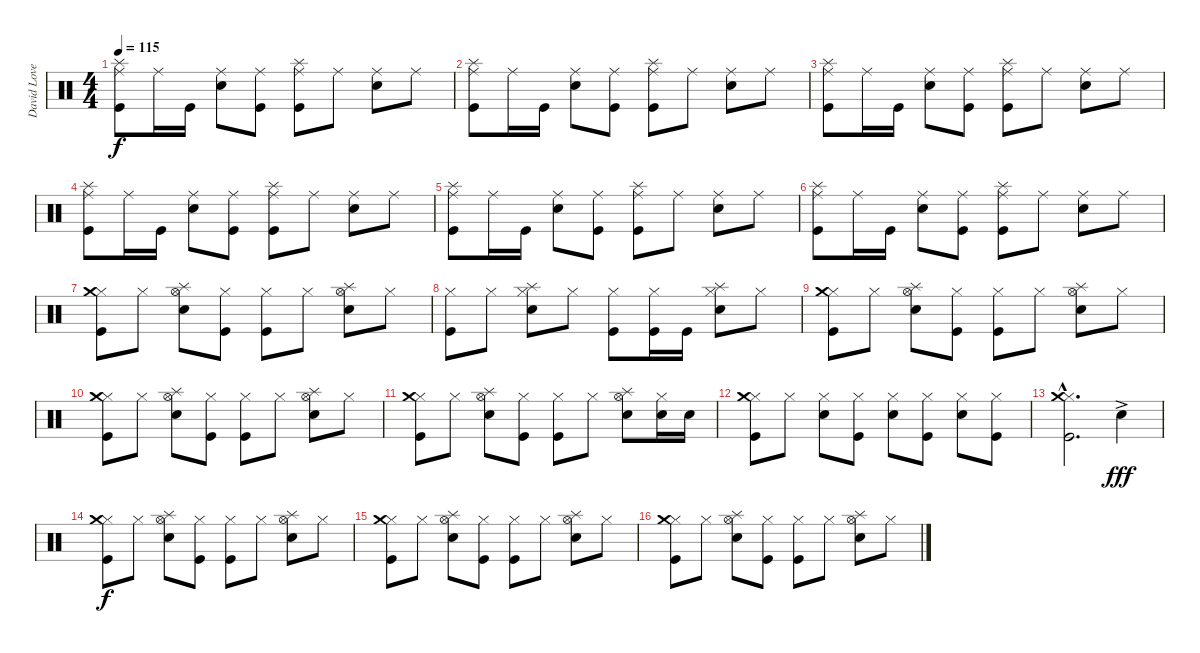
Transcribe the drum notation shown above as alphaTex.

\track ("David Lovering" "David Love") {instrument percussion}
\staff {score}
\articulation defaults
\ts (4 4)
\tempo 115
\clef neutral
\ks c
("Ride (middle)" "Splash (hit)" "Kick (hit)").8{dy f} "Ride (middle)".16 "Kick (hit)".16 ("Ride (middle)" "Snare (hit) 2").8 ("Ride (middle)" "Kick (hit)").8 ("Ride (middle)" "Splash (hit)" "Kick (hit)").8 "Ride (middle)".8 ("Ride (middle)" "Snare (hit) 2").8 "Ride (middle)".8 |
("Ride (middle)" "Splash (hit)" "Kick (hit)").8 "Ride (middle)".16 "Kick (hit)".16 ("Ride (middle)" "Snare (hit) 2").8 ("Ride (middle)" "Kick (hit)").8 ("Ride (middle)" "Splash (hit)" "Kick (hit)").8 "Ride (middle)".8 ("Ride (middle)" "Snare (hit) 2").8 "Ride (middle)".8 |
("Ride (middle)" "Splash (hit)" "Kick (hit)").8 "Ride (middle)".16 "Kick (hit)".16 ("Ride (middle)" "Snare (hit) 2").8 ("Ride (middle)" "Kick (hit)").8 ("Ride (middle)" "Splash (hit)" "Kick (hit)").8 "Ride (middle)".8 ("Ride (middle)" "Snare (hit) 2").8 "Ride (middle)".8 |
("Ride (middle)" "Splash (hit)" "Kick (hit)").8 "Ride (middle)".16 "Kick (hit)".16 ("Ride (middle)" "Snare (hit) 2").8 ("Ride (middle)" "Kick (hit)").8 ("Ride (middle)" "Splash (hit)" "Kick (hit)").8 "Ride (middle)".8 ("Ride (middle)" "Snare (hit) 2").8 "Ride (middle)".8 |
("Ride (middle)" "Splash (hit)" "Kick (hit)").8 "Ride (middle)".16 "Kick (hit)".16 ("Ride (middle)" "Snare (hit) 2").8 ("Ride (middle)" "Kick (hit)").8 ("Ride (middle)" "Splash (hit)" "Kick (hit)").8 "Ride (middle)".8 ("Ride (middle)" "Snare (hit) 2").8 "Ride (middle)".8 |
("Ride (middle)" "Splash (hit)" "Kick (hit)").8 "Ride (middle)".16 "Kick (hit)".16 ("Ride (middle)" "Snare (hit) 2").8 ("Ride (middle)" "Kick (hit)").8 ("Ride (middle)" "Splash (hit)" "Kick (hit)").8 "Ride (middle)".8 ("Ride (middle)" "Snare (hit) 2").8 "Ride (middle)".8 |
\section ("" "")
("Hi-Hat (closed)" "Crash medium (hit)" "Kick (hit)").8 "Hi-Hat (closed)".8 ("Hi-Hat (open)" "Splash (hit)" "Snare (hit) 2").8 ("Hi-Hat (closed)" "Kick (hit)").8 ("Hi-Hat (closed)" "Kick (hit)").8 "Hi-Hat (closed)".8 ("Hi-Hat (open)" "Splash (hit)" "Snare (hit) 2").8 "Hi-Hat (closed)".8 |
("Hi-Hat (closed)" "Kick (hit)").8 "Hi-Hat (closed)".8 ("Hi-Hat (closed)" "Splash (hit)" "Snare (hit) 2").8 "Hi-Hat (closed)".8 ("Hi-Hat (closed)" "Kick (hit)").8 ("Hi-Hat (closed)" "Kick (hit)").16 "Kick (hit)".16 ("Hi-Hat (closed)" "Splash (hit)" "Snare (hit) 2").8 "Hi-Hat (closed)".8 |
\section ("" "")
("Hi-Hat (closed)" "Crash medium (hit)" "Kick (hit)").8 "Hi-Hat (closed)".8 ("Hi-Hat (open)" "Splash (hit)" "Snare (hit) 2").8 ("Hi-Hat (closed)" "Kick (hit)").8 ("Hi-Hat (closed)" "Kick (hit)").8 "Hi-Hat (closed)".8 ("Hi-Hat (open)" "Splash (hit)" "Snare (hit) 2").8 "Hi-Hat (closed)".8 |
("Hi-Hat (closed)" "Crash medium (hit)" "Kick (hit)").8 "Hi-Hat (closed)".8 ("Hi-Hat (open)" "Splash (hit)" "Snare (hit) 2").8 ("Hi-Hat (closed)" "Kick (hit)").8 ("Hi-Hat (closed)" "Kick (hit)").8 "Hi-Hat (closed)".8 ("Hi-Hat (open)" "Splash (hit)" "Snare (hit) 2").8 "Hi-Hat (closed)".8 |
("Hi-Hat (closed)" "Crash medium (hit)" "Kick (hit)").8 "Hi-Hat (closed)".8 ("Hi-Hat (open)" "Splash (hit)" "Snare (hit) 2").8 ("Hi-Hat (closed)" "Kick (hit)").8 ("Hi-Hat (closed)" "Kick (hit)").8 "Hi-Hat (closed)".8 ("Hi-Hat (open)" "Splash (hit)" "Snare (hit) 2").8 ("Hi-Hat (closed)" "Snare (hit) 2").16 "Snare (hit) 2".16 |
("Hi-Hat (closed)" "Crash medium (hit)" "Kick (hit)").8 "Hi-Hat (closed)".8 ("Hi-Hat (closed)" "Snare (hit) 2").8 ("Hi-Hat (closed)" "Kick (hit)").8 ("Hi-Hat (closed)" "Snare (hit) 2").8 ("Hi-Hat (closed)" "Kick (hit)").8 ("Hi-Hat (closed)" "Snare (hit) 2").8 ("Hi-Hat (closed)" "Kick (hit)").8 |
("Hi-Hat (closed)"{hac} "Crash medium (hit)"{hac} "Kick (hit)"{hac}).2{d} "Snare (hit) 2"{ac}.4{dy fff} |
("Hi-Hat (closed)" "Crash medium (hit)" "Kick (hit)").8{dy f} "Hi-Hat (closed)".8 ("Hi-Hat (open)" "Splash (hit)" "Snare (hit) 2").8 ("Hi-Hat (closed)" "Kick (hit)").8 ("Hi-Hat (closed)" "Kick (hit)").8 "Hi-Hat (closed)".8 ("Hi-Hat (open)" "Splash (hit)" "Snare (hit) 2").8 "Hi-Hat (closed)".8 |
("Hi-Hat (closed)" "Crash medium (hit)" "Kick (hit)").8 "Hi-Hat (closed)".8 ("Hi-Hat (open)" "Splash (hit)" "Snare (hit) 2").8 ("Hi-Hat (closed)" "Kick (hit)").8 ("Hi-Hat (closed)" "Kick (hit)").8 "Hi-Hat (closed)".8 ("Hi-Hat (open)" "Splash (hit)" "Snare (hit) 2").8 "Hi-Hat (closed)".8 |
("Hi-Hat (closed)" "Crash medium (hit)" "Kick (hit)").8 "Hi-Hat (closed)".8 ("Hi-Hat (open)" "Splash (hit)" "Snare (hit) 2").8 ("Hi-Hat (closed)" "Kick (hit)").8 ("Hi-Hat (closed)" "Kick (hit)").8 "Hi-Hat (closed)".8 ("Hi-Hat (open)" "Splash (hit)" "Snare (hit) 2").8 "Hi-Hat (closed)".8
